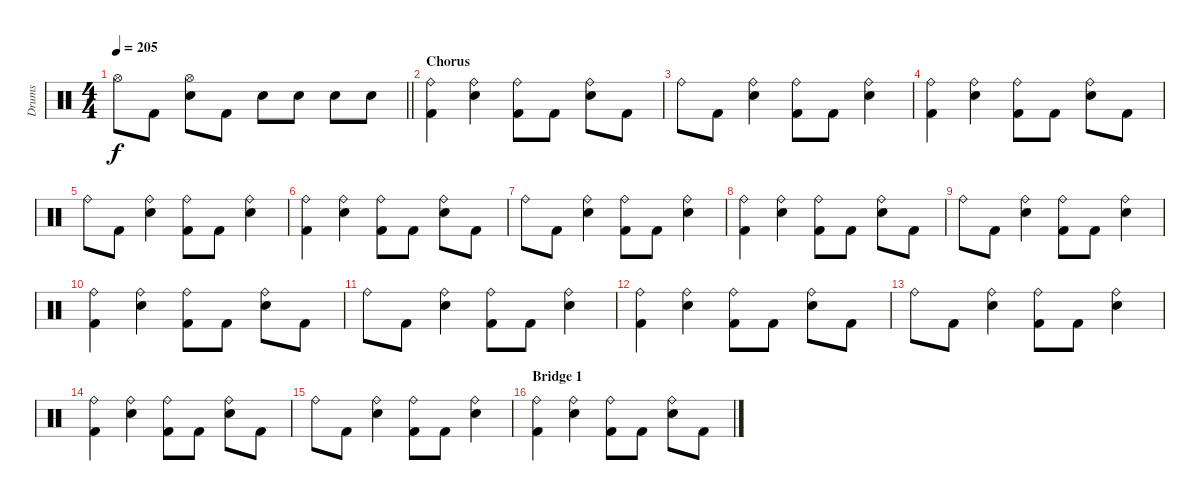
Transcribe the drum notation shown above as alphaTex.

\track ("Drums" "Drums") {instrument percussion}
\staff {score}
\articulation defaults
\ts (4 4)
\tempo 205
\clef neutral
\barLineRight lightlight
\ks c "Hi-Hat (open)".8{dy f} "Kick (hit) 2".8
("Hi-Hat (open)" "Snare (hit) 2").8 "Kick (hit) 2".8 "Snare (hit) 2".8 "Snare (hit) 2".8 "Snare (hit) 2".8 "Snare (hit) 2".8 |
\section ("" "Chorus")
("Ride (bell)" "Kick (hit) 2").4 ("Ride (bell)" "Snare (hit) 2").4 ("Ride (bell)" "Kick (hit) 2").8 "Kick (hit) 2".8 ("Ride (bell)" "Snare (hit) 2").8 "Kick (hit) 2".8 |
"Ride (bell)".8 "Kick (hit) 2".8 ("Ride (bell)" "Snare (hit) 2").4 ("Ride (bell)" "Kick (hit) 2").8 "Kick (hit) 2".8 ("Ride (bell)" "Snare (hit) 2").4 |
("Ride (bell)" "Kick (hit) 2").4 ("Ride (bell)" "Snare (hit) 2").4 ("Ride (bell)" "Kick (hit) 2").8 "Kick (hit) 2".8 ("Ride (bell)" "Snare (hit) 2").8 "Kick (hit) 2".8 |
"Ride (bell)".8 "Kick (hit) 2".8 ("Ride (bell)" "Snare (hit) 2").4 ("Ride (bell)" "Kick (hit) 2").8 "Kick (hit) 2".8 ("Ride (bell)" "Snare (hit) 2").4 |
("Ride (bell)" "Kick (hit) 2").4 ("Ride (bell)" "Snare (hit) 2").4 ("Ride (bell)" "Kick (hit) 2").8 "Kick (hit) 2".8 ("Ride (bell)" "Snare (hit) 2").8 "Kick (hit) 2".8 |
"Ride (bell)".8 "Kick (hit) 2".8 ("Ride (bell)" "Snare (hit) 2").4 ("Ride (bell)" "Kick (hit) 2").8 "Kick (hit) 2".8 ("Ride (bell)" "Snare (hit) 2").4 |
("Ride (bell)" "Kick (hit) 2").4 ("Ride (bell)" "Snare (hit) 2").4 ("Ride (bell)" "Kick (hit) 2").8 "Kick (hit) 2".8 ("Ride (bell)" "Snare (hit) 2").8 "Kick (hit) 2".8 |
"Ride (bell)".8 "Kick (hit) 2".8 ("Ride (bell)" "Snare (hit) 2").4 ("Ride (bell)" "Kick (hit) 2").8 "Kick (hit) 2".8 ("Ride (bell)" "Snare (hit) 2").4 |
("Ride (bell)" "Kick (hit) 2").4 ("Ride (bell)" "Snare (hit) 2").4 ("Ride (bell)" "Kick (hit) 2").8 "Kick (hit) 2".8 ("Ride (bell)" "Snare (hit) 2").8 "Kick (hit) 2".8 |
"Ride (bell)".8 "Kick (hit) 2".8 ("Ride (bell)" "Snare (hit) 2").4 ("Ride (bell)" "Kick (hit) 2").8 "Kick (hit) 2".8 ("Ride (bell)" "Snare (hit) 2").4 |
("Ride (bell)" "Kick (hit) 2").4 ("Ride (bell)" "Snare (hit) 2").4 ("Ride (bell)" "Kick (hit) 2").8 "Kick (hit) 2".8 ("Ride (bell)" "Snare (hit) 2").8 "Kick (hit) 2".8 |
"Ride (bell)".8 "Kick (hit) 2".8 ("Ride (bell)" "Snare (hit) 2").4 ("Ride (bell)" "Kick (hit) 2").8 "Kick (hit) 2".8 ("Ride (bell)" "Snare (hit) 2").4 |
("Ride (bell)" "Kick (hit) 2").4 ("Ride (bell)" "Snare (hit) 2").4 ("Ride (bell)" "Kick (hit) 2").8 "Kick (hit) 2".8 ("Ride (bell)" "Snare (hit) 2").8 "Kick (hit) 2".8 |
"Ride (bell)".8 "Kick (hit) 2".8 ("Ride (bell)" "Snare (hit) 2").4 ("Ride (bell)" "Kick (hit) 2").8 "Kick (hit) 2".8 ("Ride (bell)" "Snare (hit) 2").4 |
\section ("" "Bridge 1")
("Ride (bell)" "Kick (hit) 2").4 ("Ride (bell)" "Snare (hit) 2").4 ("Ride (bell)" "Kick (hit) 2").8 "Kick (hit) 2".8 ("Ride (bell)" "Snare (hit) 2").8 "Kick (hit) 2".8
